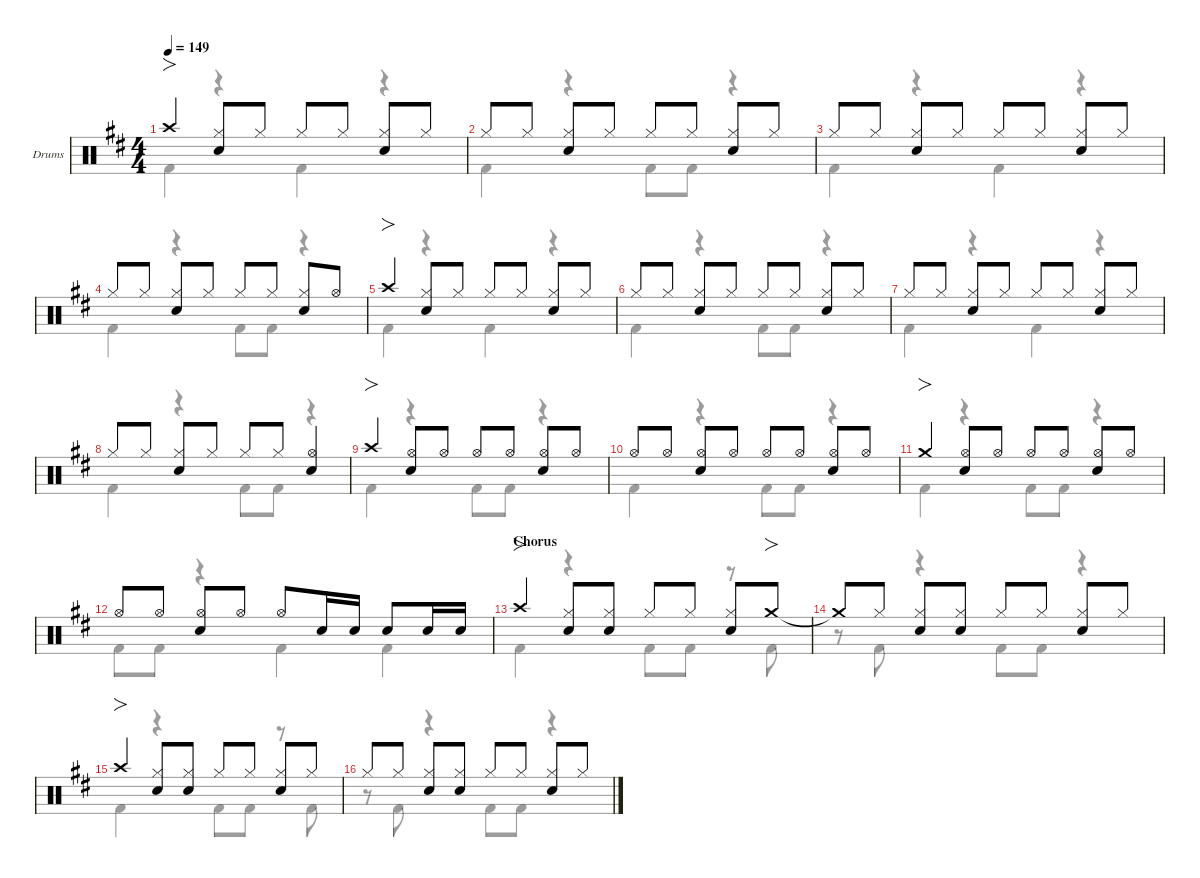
\defaultSystemsLayout 4
\hideDynamics
\bracketExtendMode nobrackets
\firstSystemTrackNameOrientation horizontal
\track ("Drums" "Drums") {defaultSystemsLayout 4 instrument percussion}
\staff {score}
\articulation defaults
\voice
\ts (4 4)
\tempo 149
\clef neutral
\scale
0.266618
\ks d "Crash high (hit)"{acc forcenatural}.4{fo dy f beam Up}
("Hi-Hat (closed)"{acc forcenatural} "Snare (hit) 2"{acc forcenatural}).8{beam Up} "Hi-Hat (closed)"{acc forcenatural}.8{dy mp beam Up} "Hi-Hat (closed)"{acc forcenatural}.8{dy f beam Up} "Hi-Hat (closed)"{acc forcenatural}.8{dy mp beam Up} ("Hi-Hat (closed)"{acc forcenatural} "Snare (hit) 2"{acc forcenatural}).8{dy f beam Up} "Hi-Hat (closed)"{acc forcenatural}.8{dy mp beam Up} |
\scale
0.244461 "Hi-Hat (closed)"{acc forcenatural}.8{dy f beam Up} "Hi-Hat (closed)"{acc forcenatural}.8{dy mp beam Up} ("Hi-Hat (closed)"{acc forcenatural} "Snare (hit) 2"{acc forcenatural}).8{dy f beam Up} "Hi-Hat (closed)"{acc forcenatural}.8{dy mp beam Up} "Hi-Hat (closed)"{acc forcenatural}.8{dy f beam Up} "Hi-Hat (closed)"{acc forcenatural}.8{dy mp beam Up} ("Hi-Hat (closed)"{acc forcenatural} "Snare (hit) 2"{acc forcenatural}).8{dy f beam Up} "Hi-Hat (closed)"{acc forcenatural}.8{dy mp beam Up} |
\scale
0.24446 "Hi-Hat (closed)"{acc forcenatural}.8{dy f beam Up} "Hi-Hat (closed)"{acc forcenatural}.8{dy mp beam Up} ("Hi-Hat (closed)"{acc forcenatural} "Snare (hit) 2"{acc forcenatural}).8{dy f beam Up} "Hi-Hat (closed)"{acc forcenatural}.8{dy mp beam Up} "Hi-Hat (closed)"{acc forcenatural}.8{dy f beam Up} "Hi-Hat (closed)"{acc forcenatural}.8{dy mp beam Up} ("Hi-Hat (closed)"{acc forcenatural} "Snare (hit) 2"{acc forcenatural}).8{dy f beam Up} "Hi-Hat (closed)"{acc forcenatural}.8{dy mp beam Up} |
\scale
0.244461 "Hi-Hat (closed)"{acc forcenatural}.8{dy f beam Up} "Hi-Hat (closed)"{acc forcenatural}.8{dy mp beam Up} ("Hi-Hat (closed)"{acc forcenatural} "Snare (hit) 2"{acc forcenatural}).8{dy f beam Up} "Hi-Hat (closed)"{acc forcenatural}.8{dy mp beam Up} "Hi-Hat (closed)"{acc forcenatural}.8{dy f beam Up} "Hi-Hat (closed)"{acc forcenatural}.8{dy mp beam Up} ("Hi-Hat (closed)"{acc forcenatural} "Snare (hit) 2"{acc forcenatural}).8{dy f beam Up} "Hi-Hat (open)"{acc forcenatural}.8{beam Up} |
\scale
0.266618 "Crash high (hit)"{acc forcenatural}.4{fo beam Up} ("Hi-Hat (closed)"{acc forcenatural} "Snare (hit) 2"{acc forcenatural}).8{beam Up} "Hi-Hat (closed)"{acc forcenatural}.8{dy mp beam Up} "Hi-Hat (closed)"{acc forcenatural}.8{dy f beam Up} "Hi-Hat (closed)"{acc forcenatural}.8{dy mp beam Up} ("Hi-Hat (closed)"{acc forcenatural} "Snare (hit) 2"{acc forcenatural}).8{dy f beam Up} "Hi-Hat (closed)"{acc forcenatural}.8{dy mp beam Up} |
\scale
0.24446 "Hi-Hat (closed)"{acc forcenatural}.8{dy f beam Up} "Hi-Hat (closed)"{acc forcenatural}.8{dy mp beam Up} ("Hi-Hat (closed)"{acc forcenatural} "Snare (hit) 2"{acc forcenatural}).8{dy f beam Up} "Hi-Hat (closed)"{acc forcenatural}.8{dy mp beam Up} "Hi-Hat (closed)"{acc forcenatural}.8{dy f beam Up} "Hi-Hat (closed)"{acc forcenatural}.8{dy mp beam Up} ("Hi-Hat (closed)"{acc forcenatural} "Snare (hit) 2"{acc forcenatural}).8{dy f beam Up} "Hi-Hat (closed)"{acc forcenatural}.8{dy mp beam Up} |
\scale
0.24446 "Hi-Hat (closed)"{acc forcenatural}.8{dy f beam Up} "Hi-Hat (closed)"{acc forcenatural}.8{dy mp beam Up} ("Hi-Hat (closed)"{acc forcenatural} "Snare (hit) 2"{acc forcenatural}).8{dy f beam Up} "Hi-Hat (closed)"{acc forcenatural}.8{dy mp beam Up} "Hi-Hat (closed)"{acc forcenatural}.8{dy f beam Up} "Hi-Hat (closed)"{acc forcenatural}.8{dy mp beam Up} ("Hi-Hat (closed)"{acc forcenatural} "Snare (hit) 2"{acc forcenatural}).8{dy f beam Up} "Hi-Hat (closed)"{acc forcenatural}.8{dy mp beam Up} |
\scale
0.244461 "Hi-Hat (closed)"{acc forcenatural}.8{dy f beam Up} "Hi-Hat (closed)"{acc forcenatural}.8{dy mp beam Up} ("Hi-Hat (closed)"{acc forcenatural} "Snare (hit) 2"{acc forcenatural}).8{dy f beam Up} "Hi-Hat (closed)"{acc forcenatural}.8{dy mp beam Up} "Hi-Hat (closed)"{acc forcenatural}.8{dy f beam Up} "Hi-Hat (closed)"{acc forcenatural}.8{dy mp beam Up} ("Hi-Hat (open)"{acc forcenatural} "Snare (hit) 2"{acc forcenatural}).4{dy f beam Up} |
\scale
0.266618 "Crash high (hit)"{acc forcenatural}.4{fo beam Up} ("Hi-Hat (open)"{acc forcenatural} "Snare (hit) 2"{acc forcenatural}).8{beam Up} "Hi-Hat (open)"{acc forcenatural}.8{dy mf beam Up} "Hi-Hat (open)"{acc forcenatural}.8{dy f beam Up} "Hi-Hat (open)"{acc forcenatural}.8{dy mf beam Up} ("Hi-Hat (open)"{acc forcenatural} "Snare (hit) 2"{acc forcenatural}).8{dy f beam Up} "Hi-Hat (open)"{acc forcenatural}.8{dy mf beam Up} |
\scale
0.244461 "Hi-Hat (open)"{acc forcenatural}.8{dy f beam Up} "Hi-Hat (open)"{acc forcenatural}.8{dy mf beam Up} ("Hi-Hat (open)"{acc forcenatural} "Snare (hit) 2"{acc forcenatural}).8{dy f beam Up} "Hi-Hat (open)"{acc forcenatural}.8{dy mf beam Up} "Hi-Hat (open)"{acc forcenatural}.8{dy f beam Up} "Hi-Hat (open)"{acc forcenatural}.8{dy mf beam Up} ("Hi-Hat (open)"{acc forcenatural} "Snare (hit) 2"{acc forcenatural}).8{dy f beam Up} "Hi-Hat (open)"{acc forcenatural}.8{dy mf beam Up} |
\scale
0.24446 "Crash medium (hit)"{acc forcenatural}.4{fo dy f beam Up} ("Hi-Hat (open)"{acc forcenatural} "Snare (hit) 2"{acc forcenatural}).8{beam Up} "Hi-Hat (open)"{acc forcenatural}.8{dy mf beam Up} "Hi-Hat (open)"{acc forcenatural}.8{dy f beam Up} "Hi-Hat (open)"{acc forcenatural}.8{dy mf beam Up} ("Hi-Hat (open)"{acc forcenatural} "Snare (hit) 2"{acc forcenatural}).8{dy f beam Up} "Hi-Hat (open)"{acc forcenatural}.8{dy mf beam Up} |
\scale
0.244461 "Hi-Hat (open)"{acc forcenatural}.8{dy f beam Up} "Hi-Hat (open)"{acc forcenatural}.8{dy mf beam Up} ("Hi-Hat (open)"{acc forcenatural} "Snare (hit) 2"{acc forcenatural}).8{dy f beam Up} "Hi-Hat (open)"{acc forcenatural}.8{dy mf beam Up} "Hi-Hat (open)"{acc forcenatural}.8{dy f beam Up} "Snare (hit) 2"{acc forcenatural}.16{beam Up} "Snare (hit) 2"{acc forcenatural}.16{dy mf beam Up beam split} "Snare (hit) 2"{acc forcenatural}.8{dy f beam Up} "Snare (hit) 2"{acc forcenatural}.16{beam Up} "Snare (hit) 2"{acc forcenatural}.16{dy mf beam Up beam split} |
\section ("" "Chorus")
\scale
0.266618 "Crash high (hit)"{acc forcenatural}.4{fo dy f beam Up} ("Hi-Hat (closed)"{acc forcenatural} "Snare (hit) 2"{acc forcenatural}).8{beam Up} ("Hi-Hat (closed)"{acc forcenatural} "Snare (hit) 2"{acc forcenatural}).8{beam Up} "Hi-Hat (closed)"{acc forcenatural}.8{beam Up} "Hi-Hat (closed)"{acc forcenatural}.8{dy mp beam Up} ("Hi-Hat (closed)"{acc forcenatural} "Snare (hit) 2"{acc forcenatural}).8{dy f beam Up} "Crash medium (hit)"{acc forcenatural}.8{fo beam Up} |
\scale
0.244461 "Crash medium (hit)"{t acc forcenatural}.8{beam Up} "Hi-Hat (closed)"{acc forcenatural}.8{dy mp beam Up} ("Hi-Hat (closed)"{acc forcenatural} "Snare (hit) 2"{acc forcenatural}).8{dy f beam Up} ("Hi-Hat (closed)"{acc forcenatural} "Snare (hit) 2"{acc forcenatural}).8{beam Up} "Hi-Hat (closed)"{acc forcenatural}.8{beam Up} "Hi-Hat (closed)"{acc forcenatural}.8{dy mp beam Up} ("Hi-Hat (closed)"{acc forcenatural} "Snare (hit) 2"{acc forcenatural}).8{dy f beam Up} "Hi-Hat (closed)"{acc forcenatural}.8{dy mp beam Up} |
\scale
0.24446 "Crash high (hit)"{acc forcenatural}.4{fo dy f beam Up} ("Hi-Hat (closed)"{acc forcenatural} "Snare (hit) 2"{acc forcenatural}).8{beam Up} ("Hi-Hat (closed)"{acc forcenatural} "Snare (hit) 2"{acc forcenatural}).8{beam Up} "Hi-Hat (closed)"{acc forcenatural}.8{beam Up} "Hi-Hat (closed)"{acc forcenatural}.8{dy mp beam Up} ("Hi-Hat (closed)"{acc forcenatural} "Snare (hit) 2"{acc forcenatural}).8{dy f beam Up} "Hi-Hat (closed)"{acc forcenatural}.8{dy mp beam Up} |
\scale
0.244461 "Hi-Hat (closed)"{acc forcenatural}.8{dy f beam Up} "Hi-Hat (closed)"{acc forcenatural}.8{dy mp beam Up} ("Hi-Hat (closed)"{acc forcenatural} "Snare (hit) 2"{acc forcenatural}).8{dy f beam Up} ("Hi-Hat (closed)"{acc forcenatural} "Snare (hit) 2"{acc forcenatural}).8{beam Up} "Hi-Hat (closed)"{acc forcenatural}.8{beam Up} "Hi-Hat (closed)"{acc forcenatural}.8{dy mp beam Up} ("Hi-Hat (closed)"{acc forcenatural} "Snare (hit) 2"{acc forcenatural}).8{dy f beam Up} "Hi-Hat (closed)"{acc forcenatural}.8{dy mp beam Up}
\voice
\clef neutral
\ottava regular
\simile none
\scale
0.266618
\ks d "Kick (hit) 2"{acc forcenatural}.4{dy f beam Down}
r.4{beam Down} "Kick (hit) 2"{acc forcenatural}.4{beam Down} r.4{beam Down} |
\scale
0.244461 "Kick (hit) 2"{acc forcenatural}.4{beam Down} r.4{beam Down} "Kick (hit) 2"{acc forcenatural}.8{beam Down} "Kick (hit) 2"{acc forcenatural}.8{beam Down} r.4{beam Down} |
\scale
0.24446 "Kick (hit) 2"{acc forcenatural}.4{beam Down} r.4{beam Down} "Kick (hit) 2"{acc forcenatural}.4{beam Down} r.4{beam Down} |
\scale
0.244461 "Kick (hit) 2"{acc forcenatural}.4{beam Down} r.4{beam Down} "Kick (hit) 2"{acc forcenatural}.8{beam Down} "Kick (hit) 2"{acc forcenatural}.8{beam Down} r.4{beam Down} |
\scale
0.266618 "Kick (hit) 2"{acc forcenatural}.4{beam Down} r.4{beam Down} "Kick (hit) 2"{acc forcenatural}.4{beam Down} r.4{beam Down} |
\scale
0.24446 "Kick (hit) 2"{acc forcenatural}.4{beam Down} r.4{beam Down} "Kick (hit) 2"{acc forcenatural}.8{beam Down} "Kick (hit) 2"{acc forcenatural}.8{beam Down} r.4{beam Down} |
\scale
0.24446 "Kick (hit) 2"{acc forcenatural}.4{beam Down} r.4{beam Down} "Kick (hit) 2"{acc forcenatural}.4{beam Down} r.4{beam Down} |
\scale
0.244461 "Kick (hit) 2"{acc forcenatural}.4{beam Down} r.4{beam Down} "Kick (hit) 2"{acc forcenatural}.8{beam Down} "Kick (hit) 2"{acc forcenatural}.8{beam Down} r.4{beam Down} |
\scale
0.266618 "Kick (hit) 2"{acc forcenatural}.4{beam Down} r.4{beam Down} "Kick (hit) 2"{acc forcenatural}.8{beam Down} "Kick (hit) 2"{acc forcenatural}.8{beam Down} r.4{beam Down} |
\scale
0.244461 "Kick (hit) 2"{acc forcenatural}.4{beam Down} r.4{beam Down} "Kick (hit) 2"{acc forcenatural}.8{beam Down} "Kick (hit) 2"{acc forcenatural}.8{beam Down} r.4{beam Down} |
\scale
0.24446 "Kick (hit) 2"{acc forcenatural}.4{beam Down} r.4{beam Down} "Kick (hit) 2"{acc forcenatural}.8{beam Down} "Kick (hit) 2"{acc forcenatural}.8{beam Down} r.4{beam Down} |
\scale
0.244461 "Kick (hit) 2"{acc forcenatural}.8{beam Down} "Kick (hit) 2"{acc forcenatural}.8{beam Down} r.4{beam Down} "Kick (hit) 2"{acc forcenatural}.4{beam Down} "Kick (hit) 2"{acc forcenatural}.4{beam Down} |
\scale
0.266618 "Kick (hit) 2"{acc forcenatural}.4{beam Down} r.4{beam Down} "Kick (hit) 2"{acc forcenatural}.8{beam Down} "Kick (hit) 2"{acc forcenatural}.8{beam Down} r.8{beam Down} "Kick (hit) 2"{acc forcenatural}.8{beam Down} |
\scale
0.244461 r.8{beam Down} "Kick (hit) 2"{acc forcenatural}.8{beam Down} r.4{beam Down} "Kick (hit) 2"{acc forcenatural}.8{beam Down} "Kick (hit) 2"{acc forcenatural}.8{beam Down} r.4{beam Down} |
\scale
0.24446 "Kick (hit) 2"{acc forcenatural}.4{beam Down} r.4{beam Down} "Kick (hit) 2"{acc forcenatural}.8{beam Down} "Kick (hit) 2"{acc forcenatural}.8{beam Down} r.8{beam Down} "Kick (hit) 2"{acc forcenatural}.8{beam Down} |
\scale
0.244461 r.8{beam Down} "Kick (hit) 2"{acc forcenatural}.8{beam Down} r.4{beam Down} "Kick (hit) 2"{acc forcenatural}.8{beam Down} "Kick (hit) 2"{acc forcenatural}.8{beam Down} r.4{beam Down}
